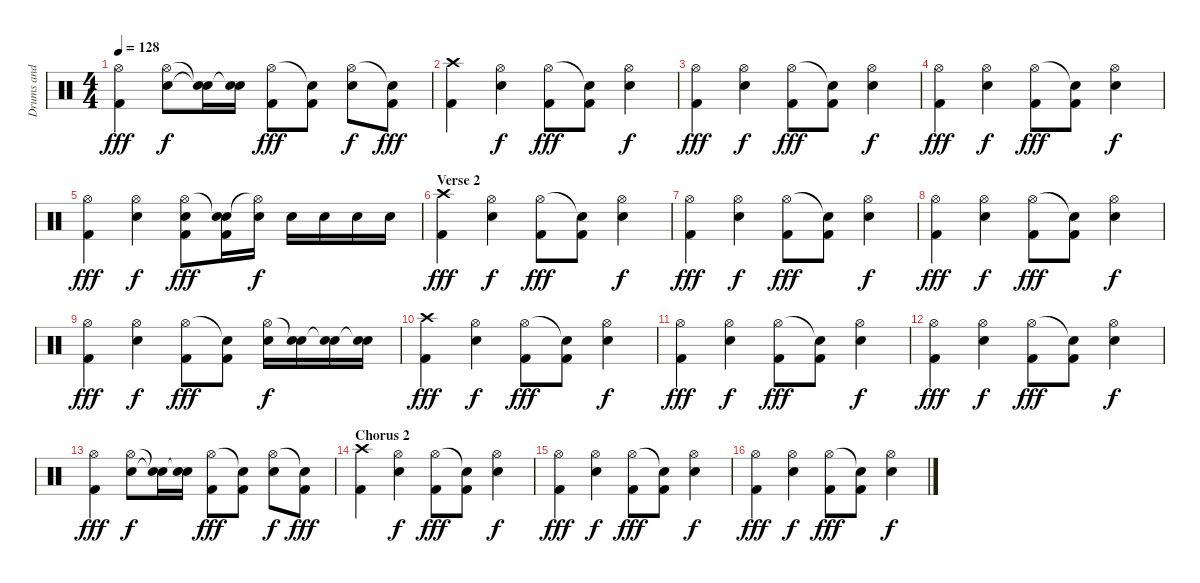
\track ("Drums and Percussion" "Drums and ") {instrument percussion}
\staff {score}
\articulation defaults
\ts (4 4)
\tempo 128
\clef neutral
\ks c
("Hi-Hat (open)" "Kick (hit) 2").4{dy fff} ("Hi-Hat (open)" "Electric Snare (hit)").8{dy f} ("Snare (hit)"{t} "Snare (hit)"{t}).16 ("Snare (hit)"{t} "Electric Snare (hit)").16 ("Hi-Hat (open)" "Kick (hit) 2").8{dy fff} ("Snare (hit)"{t} "Kick (hit) 2").8 ("Hi-Hat (open)" "Electric Snare (hit)").8{dy f} ("Snare (hit)"{t} "Kick (hit) 2").8{dy fff} |
("Crash high (hit)" "Kick (hit) 2").4 ("Hi-Hat (open)" "Electric Snare (hit)").4{dy f} ("Hi-Hat (open)" "Kick (hit) 2").8{dy fff} ("Snare (hit)"{t} "Kick (hit) 2").8 ("Hi-Hat (open)" "Electric Snare (hit)").4{dy f} |
("Hi-Hat (open)" "Kick (hit) 2").4{dy fff} ("Hi-Hat (open)" "Electric Snare (hit)").4{dy f} ("Hi-Hat (open)" "Kick (hit) 2").8{dy fff} ("Snare (hit)"{t} "Kick (hit) 2").8 ("Hi-Hat (open)" "Electric Snare (hit)").4{dy f} |
("Hi-Hat (open)" "Kick (hit) 2").4{dy fff} ("Hi-Hat (open)" "Electric Snare (hit)").4{dy f} ("Hi-Hat (open)" "Kick (hit) 2").8{dy fff} ("Snare (hit)"{t} "Kick (hit) 2").8 ("Hi-Hat (open)" "Electric Snare (hit)").4{dy f} |
("Hi-Hat (open)" "Kick (hit) 2").4{dy fff} ("Hi-Hat (open)" "Electric Snare (hit)").4{dy f} ("Hi-Hat (open)" "Electric Snare (hit)" "Kick (hit) 2").8{dy fff} ("Snare (hit)"{t} "Electric Snare (hit)" "Kick (hit) 2").16 ("Hi-Hat (open)"{t} "Electric Snare (hit)").16{dy f} "Electric Snare (hit)".16 "Electric Snare (hit)".16 "Electric Snare (hit)".16 "Electric Snare (hit)".16 |
\section ("" "Verse 2")
("Crash high (hit)" "Kick (hit) 2").4{dy fff} ("Hi-Hat (open)" "Electric Snare (hit)").4{dy f} ("Hi-Hat (open)" "Kick (hit) 2").8{dy fff} ("Snare (hit)"{t} "Kick (hit) 2").8 ("Hi-Hat (open)" "Electric Snare (hit)").4{dy f} |
("Hi-Hat (open)" "Kick (hit) 2").4{dy fff} ("Hi-Hat (open)" "Electric Snare (hit)").4{dy f} ("Hi-Hat (open)" "Kick (hit) 2").8{dy fff} ("Snare (hit)"{t} "Kick (hit) 2").8 ("Hi-Hat (open)" "Electric Snare (hit)").4{dy f} |
("Hi-Hat (open)" "Kick (hit) 2").4{dy fff} ("Hi-Hat (open)" "Electric Snare (hit)").4{dy f} ("Hi-Hat (open)" "Kick (hit) 2").8{dy fff} ("Snare (hit)"{t} "Kick (hit) 2").8 ("Hi-Hat (open)" "Electric Snare (hit)").4{dy f} |
("Hi-Hat (open)" "Kick (hit) 2").4{dy fff} ("Hi-Hat (open)" "Electric Snare (hit)").4{dy f} ("Hi-Hat (open)" "Kick (hit) 2").8{dy fff} ("Snare (hit)"{t} "Kick (hit) 2").8 ("Hi-Hat (open)" "Electric Snare (hit)").16{dy f} ("Snare (hit)"{t} "Electric Snare (hit)").16 ("Snare (hit)"{t} "Electric Snare (hit)").16 ("Snare (hit)"{t} "Electric Snare (hit)").16 |
("Crash high (hit)" "Kick (hit) 2").4{dy fff} ("Hi-Hat (open)" "Electric Snare (hit)").4{dy f} ("Hi-Hat (open)" "Kick (hit) 2").8{dy fff} ("Snare (hit)"{t} "Kick (hit) 2").8 ("Hi-Hat (open)" "Electric Snare (hit)").4{dy f} |
("Hi-Hat (open)" "Kick (hit) 2").4{dy fff} ("Hi-Hat (open)" "Electric Snare (hit)").4{dy f} ("Hi-Hat (open)" "Kick (hit) 2").8{dy fff} ("Snare (hit)"{t} "Kick (hit) 2").8 ("Hi-Hat (open)" "Electric Snare (hit)").4{dy f} |
("Hi-Hat (open)" "Kick (hit) 2").4{dy fff} ("Hi-Hat (open)" "Electric Snare (hit)").4{dy f} ("Hi-Hat (open)" "Kick (hit) 2").8{dy fff} ("Snare (hit)"{t} "Kick (hit) 2").8 ("Hi-Hat (open)" "Electric Snare (hit)").4{dy f} |
("Hi-Hat (open)" "Kick (hit) 2").4{dy fff} ("Hi-Hat (open)" "Electric Snare (hit)").8{dy f} ("Snare (hit)"{t} "Snare (hit)"{t}).16 ("Snare (hit)"{t} "Electric Snare (hit)").16 ("Hi-Hat (open)" "Kick (hit) 2").8{dy fff} ("Snare (hit)"{t} "Kick (hit) 2").8 ("Hi-Hat (open)" "Electric Snare (hit)").8{dy f} ("Snare (hit)"{t} "Kick (hit) 2").8{dy fff} |
\section ("" "Chorus 2")
("Crash high (hit)" "Kick (hit) 2").4 ("Hi-Hat (open)" "Electric Snare (hit)").4{dy f} ("Hi-Hat (open)" "Kick (hit) 2").8{dy fff} ("Snare (hit)"{t} "Kick (hit) 2").8 ("Hi-Hat (open)" "Electric Snare (hit)").4{dy f} |
("Hi-Hat (open)" "Kick (hit) 2").4{dy fff} ("Hi-Hat (open)" "Electric Snare (hit)").4{dy f} ("Hi-Hat (open)" "Kick (hit) 2").8{dy fff} ("Snare (hit)"{t} "Kick (hit) 2").8 ("Hi-Hat (open)" "Electric Snare (hit)").4{dy f} |
("Hi-Hat (open)" "Kick (hit) 2").4{dy fff} ("Hi-Hat (open)" "Electric Snare (hit)").4{dy f} ("Hi-Hat (open)" "Kick (hit) 2").8{dy fff} ("Snare (hit)"{t} "Kick (hit) 2").8 ("Hi-Hat (open)" "Electric Snare (hit)").4{dy f}
